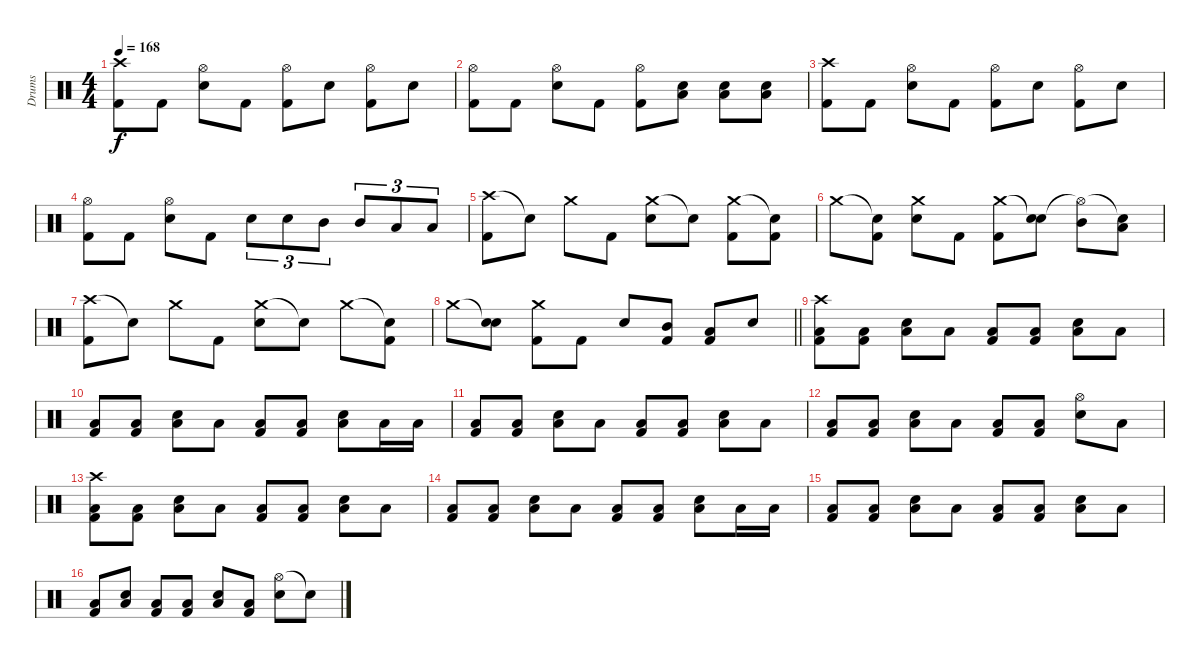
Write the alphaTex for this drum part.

\track ("Drums" "Drums") {instrument percussion}
\staff {score}
\articulation defaults
\ts (4 4)
\tempo 168
\clef neutral
\ks c
("Crash high (hit)" "Kick (hit) 2").8{dy f} "Kick (hit) 2".8 ("Hi-Hat (open)" "Electric Snare (hit)").8 "Kick (hit) 2".8 ("Hi-Hat (open)" "Kick (hit) 2").8 "Electric Snare (hit)".8 ("Hi-Hat (open)" "Kick (hit) 2").8 "Electric Snare (hit)".8 |
("Hi-Hat (open)" "Kick (hit) 2").8 "Kick (hit) 2".8 ("Hi-Hat (open)" "Electric Snare (hit)").8 "Kick (hit) 2".8 ("Hi-Hat (open)" "Kick (hit) 2").8 ("Electric Snare (hit)" "Low Floor Tom (hit)").8 ("Electric Snare (hit)" "Low Floor Tom (hit)").8 ("Electric Snare (hit)" "Low Floor Tom (hit)").8 |
("Crash high (hit)" "Kick (hit) 2").8 "Kick (hit) 2".8 ("Hi-Hat (open)" "Electric Snare (hit)").8 "Kick (hit) 2".8 ("Hi-Hat (open)" "Kick (hit) 2").8 "Electric Snare (hit)".8 ("Hi-Hat (open)" "Kick (hit) 2").8 "Electric Snare (hit)".8 |
("Hi-Hat (open)" "Kick (hit) 2").8 "Kick (hit) 2".8 ("Hi-Hat (open)" "Electric Snare (hit)").8 "Kick (hit) 2".8 "Electric Snare (hit)".8{tu (3 2)} "Electric Snare (hit)".8{tu (3 2)} "Mid Tom (hit)".8{tu (3 2)} "Mid Tom (hit)".8{tu (3 2)} "Low Tom (hit)".8{tu (3 2)} "Low Tom (hit)".8{tu (3 2)} |
("Crash high (hit)" "Kick (hit) 2").8 "Snare (hit)"{t}.8 "Crash medium (hit)".8 "Kick (hit) 2".8 ("Crash medium (hit)" "Electric Snare (hit)").8 "Snare (hit)"{t}.8 ("Crash medium (hit)" "Kick (hit) 2").8 ("Snare (hit)"{t} "Kick (hit) 2").8 |
"Crash medium (hit)".8 ("Snare (hit)"{t} "Kick (hit) 2").8 ("Crash medium (hit)" "Electric Snare (hit)").8 "Kick (hit) 2".8 ("Crash medium (hit)" "Kick (hit) 2").8 ("Snare (hit)"{t} "Electric Snare (hit)").8 ("Hi-Hat (open)"{t} "Mid Tom (hit)").8 ("Snare (hit)"{t} "Low Tom (hit)").8 |
("Crash high (hit)" "Kick (hit) 2").8 "Snare (hit)"{t}.8 "Crash medium (hit)".8 "Kick (hit) 2".8 ("Crash medium (hit)" "Electric Snare (hit)").8 "Snare (hit)"{t}.8 "Crash medium (hit)".8 ("Snare (hit)"{t} "Kick (hit) 2").8 |
\barLineRight lightlight "Crash medium (hit)".8
("Snare (hit)"{t} "Electric Snare (hit)").8 ("Crash medium (hit)" "Kick (hit) 2").8 "Kick (hit) 2".8 "Electric Snare (hit)".8 ("Mid Tom (hit)" "Kick (hit) 2").8 ("Low Tom (hit)" "Kick (hit) 2").8 "Electric Snare (hit)".8 |
\section ("" "")
("Crash high (hit)" "Low Floor Tom (hit)" "Kick (hit) 2").8 ("Low Floor Tom (hit)" "Kick (hit) 2").8 ("Electric Snare (hit)" "Low Floor Tom (hit)").8 "Low Floor Tom (hit)".8 ("Low Floor Tom (hit)" "Kick (hit) 2").8 ("Low Floor Tom (hit)" "Kick (hit) 2").8 ("Electric Snare (hit)" "Low Floor Tom (hit)").8 "Low Floor Tom (hit)".8 |
("Low Floor Tom (hit)" "Kick (hit) 2").8 ("Low Floor Tom (hit)" "Kick (hit) 2").8 ("Electric Snare (hit)" "Low Floor Tom (hit)").8 "Low Floor Tom (hit)".8 ("Low Floor Tom (hit)" "Kick (hit) 2").8 ("Low Floor Tom (hit)" "Kick (hit) 2").8 ("Electric Snare (hit)" "Low Floor Tom (hit)").8 "Low Floor Tom (hit)".16 "Low Floor Tom (hit)".16 |
("Low Floor Tom (hit)" "Kick (hit) 2").8 ("Low Floor Tom (hit)" "Kick (hit) 2").8 ("Electric Snare (hit)" "Low Floor Tom (hit)").8 "Low Floor Tom (hit)".8 ("Low Floor Tom (hit)" "Kick (hit) 2").8 ("Low Floor Tom (hit)" "Kick (hit) 2").8 ("Electric Snare (hit)" "Low Floor Tom (hit)").8 "Low Floor Tom (hit)".8 |
("Low Floor Tom (hit)" "Kick (hit) 2").8 ("Low Floor Tom (hit)" "Kick (hit) 2").8 ("Electric Snare (hit)" "Low Floor Tom (hit)").8 "Low Floor Tom (hit)".8 ("Low Floor Tom (hit)" "Kick (hit) 2").8 ("Low Floor Tom (hit)" "Kick (hit) 2").8 ("Hi-Hat (open)" "Electric Snare (hit)").8 "Low Floor Tom (hit)".8 |
("Crash high (hit)" "Low Floor Tom (hit)" "Kick (hit) 2").8 ("Low Floor Tom (hit)" "Kick (hit) 2").8 ("Electric Snare (hit)" "Low Floor Tom (hit)").8 "Low Floor Tom (hit)".8 ("Low Floor Tom (hit)" "Kick (hit) 2").8 ("Low Floor Tom (hit)" "Kick (hit) 2").8 ("Electric Snare (hit)" "Low Floor Tom (hit)").8 "Low Floor Tom (hit)".8 |
("Low Floor Tom (hit)" "Kick (hit) 2").8 ("Low Floor Tom (hit)" "Kick (hit) 2").8 ("Electric Snare (hit)" "Low Floor Tom (hit)").8 "Low Floor Tom (hit)".8 ("Low Floor Tom (hit)" "Kick (hit) 2").8 ("Low Floor Tom (hit)" "Kick (hit) 2").8 ("Electric Snare (hit)" "Low Floor Tom (hit)").8 "Low Floor Tom (hit)".16 "Low Floor Tom (hit)".16 |
("Low Floor Tom (hit)" "Kick (hit) 2").8 ("Low Floor Tom (hit)" "Kick (hit) 2").8 ("Electric Snare (hit)" "Low Floor Tom (hit)").8 "Low Floor Tom (hit)".8 ("Low Floor Tom (hit)" "Kick (hit) 2").8 ("Low Floor Tom (hit)" "Kick (hit) 2").8 ("Electric Snare (hit)" "Low Floor Tom (hit)").8 "Low Floor Tom (hit)".8 |
("Low Floor Tom (hit)" "Kick (hit) 2").8 ("Electric Snare (hit)" "Low Floor Tom (hit)").8 ("Low Floor Tom (hit)" "Kick (hit) 2").8 ("Low Floor Tom (hit)" "Kick (hit) 2").8 ("Electric Snare (hit)" "Low Floor Tom (hit)").8 ("Low Floor Tom (hit)" "Kick (hit) 2").8 ("Hi-Hat (open)" "Electric Snare (hit)").8 "Snare (hit)"{t}.8
